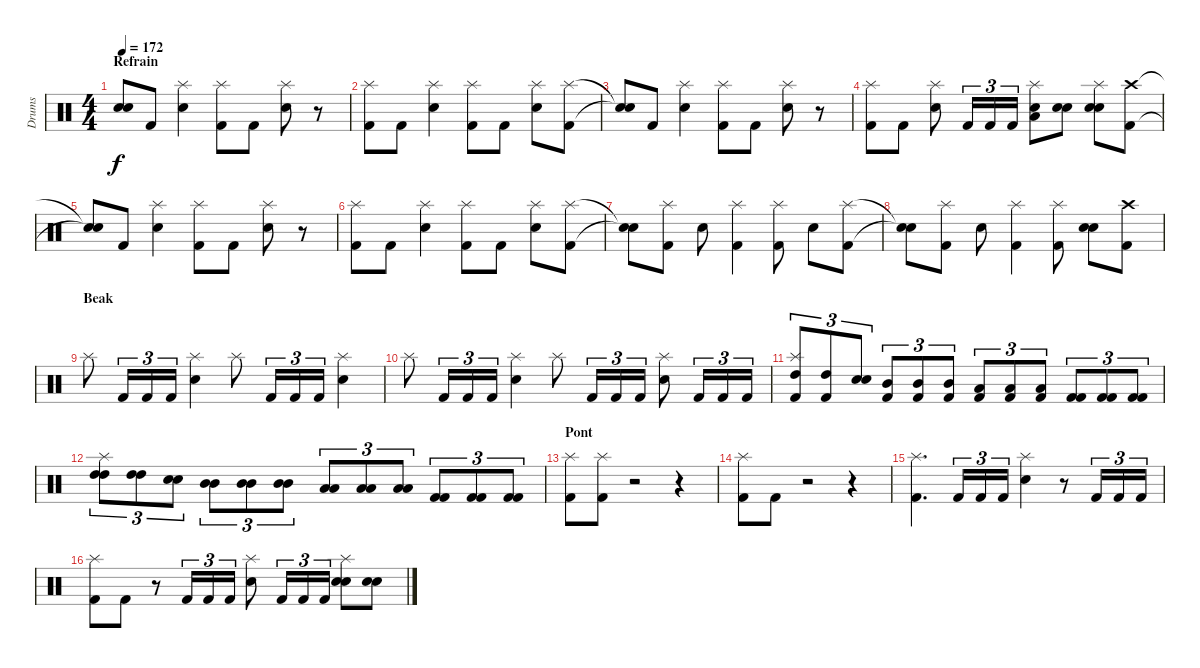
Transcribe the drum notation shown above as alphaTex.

\track ("Drums" "Drums") {instrument percussion}
\staff {score}
\articulation defaults
\ts (4 4)
\section ("" "Refrain")
\tempo 172
\clef neutral
\ks c
("Snare (hit)"{t} "Snare (hit)"{t}).8{dy f} "Kick (hit) 2".8 ("Splash (hit)" "Electric Snare (hit)").4 ("Splash (hit)" "Kick (hit) 2").8 "Kick (hit) 2".8 ("Splash (hit)" "Electric Snare (hit)").8 r.8 |
("Splash (hit)" "Kick (hit) 2").8 "Kick (hit) 2".8 ("Splash (hit)" "Electric Snare (hit)").4 ("Splash (hit)" "Kick (hit) 2").8 "Kick (hit) 2".8 ("Splash (hit)" "Electric Snare (hit)").8 ("Splash (hit)" "Kick (hit) 2").8 |
("Snare (hit)"{t} "Snare (hit)"{t}).8 "Kick (hit) 2".8 ("Splash (hit)" "Electric Snare (hit)").4 ("Splash (hit)" "Kick (hit) 2").8 "Kick (hit) 2".8 ("Splash (hit)" "Electric Snare (hit)").8 r.8 |
("Splash (hit)" "Kick (hit) 2").8 "Kick (hit) 2".8 ("Splash (hit)" "Electric Snare (hit)").8 "Kick (hit) 2".16{tu (3 2)} "Kick (hit) 2".16{tu (3 2)} "Kick (hit) 2".16{tu (3 2)} ("Splash (hit)" "Low Tom (hit)" "Electric Snare (hit)").8 ("Electric Snare (hit)" "Electric Snare (hit)").8 ("Splash (hit)" "Electric Snare (hit)" "Electric Snare (hit)").8 ("Crash high (hit)" "Kick (hit) 2").8 |
("Snare (hit)"{t} "Snare (hit)"{t}).8 "Kick (hit) 2".8 ("Splash (hit)" "Electric Snare (hit)").4 ("Splash (hit)" "Kick (hit) 2").8 "Kick (hit) 2".8 ("Splash (hit)" "Electric Snare (hit)").8 r.8 |
("Splash (hit)" "Kick (hit) 2").8 "Kick (hit) 2".8 ("Splash (hit)" "Electric Snare (hit)").4 ("Splash (hit)" "Kick (hit) 2").8 "Kick (hit) 2".8 ("Splash (hit)" "Electric Snare (hit)").8 ("Splash (hit)" "Kick (hit) 2").8 |
("Snare (hit)"{t} "Snare (hit)"{t}).8 ("Splash (hit)" "Kick (hit) 2").8 "Electric Snare (hit)".8 ("Splash (hit)" "Kick (hit) 2").4 ("Splash (hit)" "Kick (hit) 2").8 "Electric Snare (hit)".8 ("Splash (hit)" "Kick (hit) 2").8 |
("Snare (hit)"{t} "Snare (hit)"{t}).8 ("Splash (hit)" "Kick (hit) 2").8 "Electric Snare (hit)".8 ("Splash (hit)" "Kick (hit) 2").4 ("Splash (hit)" "Kick (hit) 2").8 ("Electric Snare (hit)" "Electric Snare (hit)").8 ("Crash high (hit)" "Kick (hit) 2").8 |
\section ("" "Beak")
"Splash (hit)".8 "Kick (hit) 2".16{tu (3 2)} "Kick (hit) 2".16{tu (3 2)} "Kick (hit) 2".16{tu (3 2)} ("Splash (hit)" "Electric Snare (hit)").4 "Splash (hit)".8 "Kick (hit) 2".16{tu (3 2)} "Kick (hit) 2".16{tu (3 2)} "Kick (hit) 2".16{tu (3 2)} ("Splash (hit)" "Electric Snare (hit)").4 |
"Splash (hit)".8 "Kick (hit) 2".16{tu (3 2)} "Kick (hit) 2".16{tu (3 2)} "Kick (hit) 2".16{tu (3 2)} ("Splash (hit)" "Electric Snare (hit)").4 "Splash (hit)".8 "Kick (hit) 2".16{tu (3 2)} "Kick (hit) 2".16{tu (3 2)} "Kick (hit) 2".16{tu (3 2)} ("Splash (hit)" "Electric Snare (hit)").8 "Kick (hit) 2".16{tu (3 2)} "Kick (hit) 2".16{tu (3 2)} "Kick (hit) 2".16{tu (3 2)} |
("Splash (hit)" "High Tom (hit)" "Kick (hit) 2").8{tu (3 2)} ("High Tom (hit)" "Kick (hit) 2").8{tu (3 2)} ("Electric Snare (hit)" "Electric Snare (hit)").8{tu (3 2)} ("Mid Tom (hit)" "Kick (hit) 2").8{tu (3 2)} ("Mid Tom (hit)" "Kick (hit) 2").8{tu (3 2)} ("Mid Tom (hit)" "Kick (hit) 2").8{tu (3 2)} ("Low Tom (hit)" "Kick (hit) 2").8{tu (3 2)} ("Low Tom (hit)" "Kick (hit) 2").8{tu (3 2)} ("Low Tom (hit)" "Kick (hit) 2").8{tu (3 2)} ("Kick (hit) 2" "Kick (hit) 2").8{tu (3 2)} ("Kick (hit) 2" "Kick (hit) 2").8{tu (3 2)} ("Kick (hit) 2" "Kick (hit) 2").8{tu (3 2)} |
("Splash (hit)" "High Tom (hit)" "High Tom (hit)").8{tu (3 2)} ("High Tom (hit)" "High Tom (hit)").8{tu (3 2)} ("Electric Snare (hit)" "Electric Snare (hit)").8{tu (3 2)} ("Mid Tom (hit)" "Mid Tom (hit)").8{tu (3 2)} ("Mid Tom (hit)" "Mid Tom (hit)").8{tu (3 2)} ("Mid Tom (hit)" "Mid Tom (hit)").8{tu (3 2)} ("Low Tom (hit)" "Low Tom (hit)").8{tu (3 2)} ("Low Tom (hit)" "Low Tom (hit)").8{tu (3 2)} ("Low Tom (hit)" "Low Tom (hit)").8{tu (3 2)} ("Kick (hit) 2" "Kick (hit) 2").8{tu (3 2)} ("Kick (hit) 2" "Kick (hit) 2").8{tu (3 2)} ("Kick (hit) 2" "Kick (hit) 2").8{tu (3 2)} |
\section ("" "Pont")
("Splash (hit)" "Kick (hit) 2").8 ("Splash (hit)" "Kick (hit) 2").8 r.2 r.4 |
("Splash (hit)" "Kick (hit) 2").8 "Kick (hit) 2".8 r.2 r.4 |
("Splash (hit)" "Kick (hit) 2").4{d} "Kick (hit) 2".16{tu (3 2)} "Kick (hit) 2".16{tu (3 2)} "Kick (hit) 2".16{tu (3 2)} ("Splash (hit)" "Electric Snare (hit)").4 r.8 "Kick (hit) 2".16{tu (3 2)} "Kick (hit) 2".16{tu (3 2)} "Kick (hit) 2".16{tu (3 2)} |
("Splash (hit)" "Kick (hit) 2").8 "Kick (hit) 2".8 r.8 "Kick (hit) 2".16{tu (3 2)} "Kick (hit) 2".16{tu (3 2)} "Kick (hit) 2".16{tu (3 2)} ("Splash (hit)" "Electric Snare (hit)").8 "Kick (hit) 2".16{tu (3 2)} "Kick (hit) 2".16{tu (3 2)} "Kick (hit) 2".16{tu (3 2)} ("Splash (hit)" "Electric Snare (hit)" "Electric Snare (hit)").8 ("Electric Snare (hit)" "Electric Snare (hit)").8
